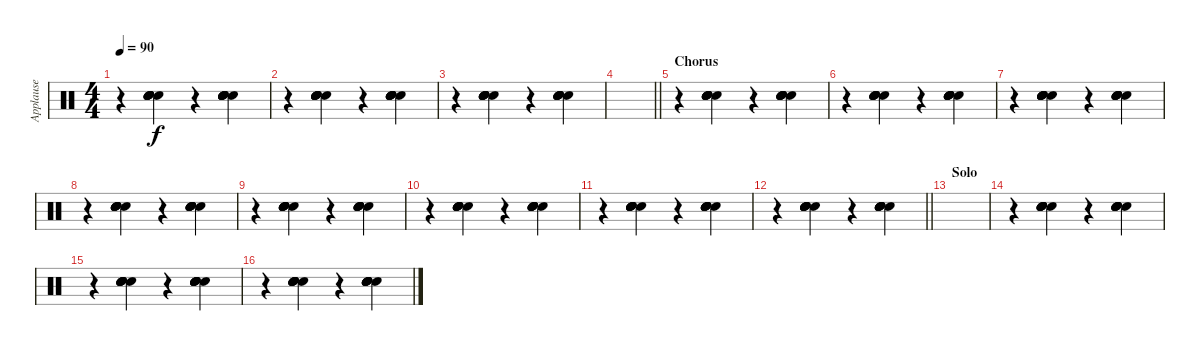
\track ("Applause" "Applause") {instrument percussion}
\staff {score}
\articulation defaults
\ts (4 4)
\tempo 90
\clef neutral
\ks c
r.4{dy f} ("Hand Clap (hit)" "Hand Clap (hit)" "Hand Clap (hit)" "Hand Clap (hit)" "Hand Clap (hit)" "Hand Clap (hit)").4 r.4 ("Hand Clap (hit)" "Hand Clap (hit)" "Hand Clap (hit)" "Hand Clap (hit)" "Hand Clap (hit)" "Hand Clap (hit)").4 |
r.4 ("Hand Clap (hit)" "Hand Clap (hit)" "Hand Clap (hit)" "Hand Clap (hit)" "Hand Clap (hit)" "Hand Clap (hit)").4 r.4 ("Hand Clap (hit)" "Hand Clap (hit)" "Hand Clap (hit)" "Hand Clap (hit)" "Hand Clap (hit)" "Hand Clap (hit)").4 |
r.4 ("Hand Clap (hit)" "Hand Clap (hit)" "Hand Clap (hit)" "Hand Clap (hit)" "Hand Clap (hit)" "Hand Clap (hit)").4 r.4 ("Hand Clap (hit)" "Hand Clap (hit)" "Hand Clap (hit)" "Hand Clap (hit)" "Hand Clap (hit)" "Hand Clap (hit)").4 |
\barLineRight lightlight
|
\section ("" "Chorus")
r.4 ("Hand Clap (hit)" "Hand Clap (hit)" "Hand Clap (hit)" "Hand Clap (hit)" "Hand Clap (hit)" "Hand Clap (hit)").4 r.4 ("Hand Clap (hit)" "Hand Clap (hit)" "Hand Clap (hit)" "Hand Clap (hit)" "Hand Clap (hit)" "Hand Clap (hit)").4 |
r.4 ("Hand Clap (hit)" "Hand Clap (hit)" "Hand Clap (hit)" "Hand Clap (hit)" "Hand Clap (hit)" "Hand Clap (hit)").4 r.4 ("Hand Clap (hit)" "Hand Clap (hit)" "Hand Clap (hit)" "Hand Clap (hit)" "Hand Clap (hit)" "Hand Clap (hit)").4 |
r.4 ("Hand Clap (hit)" "Hand Clap (hit)" "Hand Clap (hit)" "Hand Clap (hit)" "Hand Clap (hit)" "Hand Clap (hit)").4 r.4 ("Hand Clap (hit)" "Hand Clap (hit)" "Hand Clap (hit)" "Hand Clap (hit)" "Hand Clap (hit)" "Hand Clap (hit)").4 |
r.4 ("Hand Clap (hit)" "Hand Clap (hit)" "Hand Clap (hit)" "Hand Clap (hit)" "Hand Clap (hit)" "Hand Clap (hit)").4 r.4 ("Hand Clap (hit)" "Hand Clap (hit)" "Hand Clap (hit)" "Hand Clap (hit)" "Hand Clap (hit)" "Hand Clap (hit)").4 |
r.4 ("Hand Clap (hit)" "Hand Clap (hit)" "Hand Clap (hit)" "Hand Clap (hit)" "Hand Clap (hit)" "Hand Clap (hit)").4 r.4 ("Hand Clap (hit)" "Hand Clap (hit)" "Hand Clap (hit)" "Hand Clap (hit)" "Hand Clap (hit)" "Hand Clap (hit)").4 |
r.4 ("Hand Clap (hit)" "Hand Clap (hit)" "Hand Clap (hit)" "Hand Clap (hit)" "Hand Clap (hit)" "Hand Clap (hit)").4 r.4 ("Hand Clap (hit)" "Hand Clap (hit)" "Hand Clap (hit)" "Hand Clap (hit)" "Hand Clap (hit)" "Hand Clap (hit)").4 |
r.4 ("Hand Clap (hit)" "Hand Clap (hit)" "Hand Clap (hit)" "Hand Clap (hit)" "Hand Clap (hit)" "Hand Clap (hit)").4 r.4 ("Hand Clap (hit)" "Hand Clap (hit)" "Hand Clap (hit)" "Hand Clap (hit)" "Hand Clap (hit)" "Hand Clap (hit)").4 |
\barLineRight lightlight
r.4 ("Hand Clap (hit)" "Hand Clap (hit)" "Hand Clap (hit)" "Hand Clap (hit)" "Hand Clap (hit)" "Hand Clap (hit)").4 r.4 ("Hand Clap (hit)" "Hand Clap (hit)" "Hand Clap (hit)" "Hand Clap (hit)" "Hand Clap (hit)" "Hand Clap (hit)").4 |
\section ("" "Solo")
|
r.4 ("Hand Clap (hit)" "Hand Clap (hit)" "Hand Clap (hit)" "Hand Clap (hit)" "Hand Clap (hit)" "Hand Clap (hit)").4 r.4 ("Hand Clap (hit)" "Hand Clap (hit)" "Hand Clap (hit)" "Hand Clap (hit)" "Hand Clap (hit)" "Hand Clap (hit)").4 |
r.4 ("Hand Clap (hit)" "Hand Clap (hit)" "Hand Clap (hit)" "Hand Clap (hit)" "Hand Clap (hit)" "Hand Clap (hit)").4 r.4 ("Hand Clap (hit)" "Hand Clap (hit)" "Hand Clap (hit)" "Hand Clap (hit)" "Hand Clap (hit)" "Hand Clap (hit)").4 |
r.4 ("Hand Clap (hit)" "Hand Clap (hit)" "Hand Clap (hit)" "Hand Clap (hit)" "Hand Clap (hit)" "Hand Clap (hit)").4 r.4 ("Hand Clap (hit)" "Hand Clap (hit)" "Hand Clap (hit)" "Hand Clap (hit)" "Hand Clap (hit)" "Hand Clap (hit)").4
